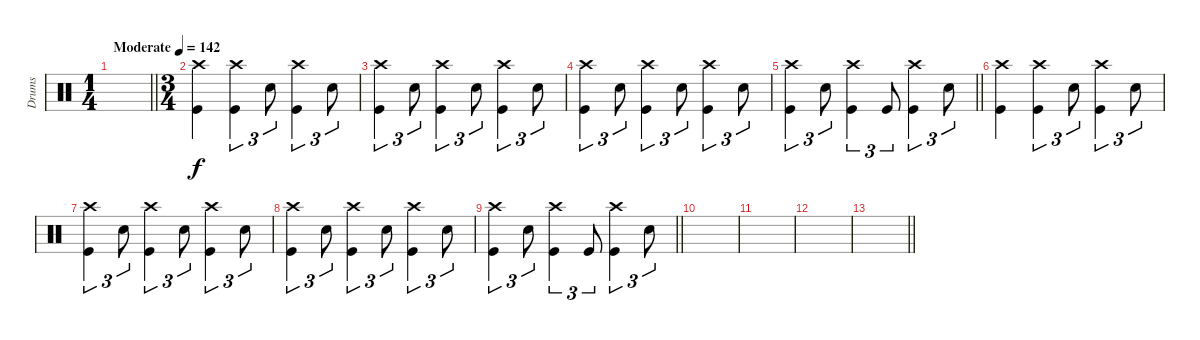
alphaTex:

\track ("Drums" "Drums") {instrument percussion}
\staff
\articulation defaults
\ts (1 4)
\tempo (142 "Moderate")
\clef neutral
\barLineRight lightlight
\ks c
|
\ts (3 4)
\section ("" "")
("Crash high (hit)" "Kick (hit)").4 ("Crash high (hit)" "Kick (hit)").4{tu (3 2)} "Electric Snare (hit)".8{tu (3 2)} ("Crash high (hit)" "Kick (hit)").4{tu (3 2)} "Electric Snare (hit)".8{tu (3 2)} |
("Crash high (hit)" "Kick (hit)").4{tu (3 2)} "Electric Snare (hit)".8{tu (3 2)} ("Crash high (hit)" "Kick (hit)").4{tu (3 2)} "Electric Snare (hit)".8{tu (3 2)} ("Crash high (hit)" "Kick (hit)").4{tu (3 2)} "Electric Snare (hit)".8{tu (3 2)} |
("Crash high (hit)" "Kick (hit)").4{tu (3 2)} "Electric Snare (hit)".8{tu (3 2)} ("Crash high (hit)" "Kick (hit)").4{tu (3 2)} "Electric Snare (hit)".8{tu (3 2)} ("Crash high (hit)" "Kick (hit)").4{tu (3 2)} "Electric Snare (hit)".8{tu (3 2)} |
\barLineRight lightlight
("Crash high (hit)" "Kick (hit)").4{tu (3 2)} "Electric Snare (hit)".8{tu (3 2)} ("Crash high (hit)" "Kick (hit)").4{tu (3 2)} "Kick (hit)".8{tu (3 2)} ("Crash high (hit)" "Kick (hit)").4{tu (3 2)} "Electric Snare (hit)".8{tu (3 2)} |
("Crash high (hit)" "Kick (hit)").4 ("Crash high (hit)" "Kick (hit)").4{tu (3 2)} "Electric Snare (hit)".8{tu (3 2)} ("Crash high (hit)" "Kick (hit)").4{tu (3 2)} "Electric Snare (hit)".8{tu (3 2)} |
("Crash high (hit)" "Kick (hit)").4{tu (3 2)} "Electric Snare (hit)".8{tu (3 2)} ("Crash high (hit)" "Kick (hit)").4{tu (3 2)} "Electric Snare (hit)".8{tu (3 2)} ("Crash high (hit)" "Kick (hit)").4{tu (3 2)} "Electric Snare (hit)".8{tu (3 2)} |
("Crash high (hit)" "Kick (hit)").4{tu (3 2)} "Electric Snare (hit)".8{tu (3 2)} ("Crash high (hit)" "Kick (hit)").4{tu (3 2)} "Electric Snare (hit)".8{tu (3 2)} ("Crash high (hit)" "Kick (hit)").4{tu (3 2)} "Electric Snare (hit)".8{tu (3 2)} |
\barLineRight lightlight
("Crash high (hit)" "Kick (hit)").4{tu (3 2)} "Electric Snare (hit)".8{tu (3 2)} ("Crash high (hit)" "Kick (hit)").4{tu (3 2)} "Kick (hit)".8{tu (3 2)} ("Crash high (hit)" "Kick (hit)").4{tu (3 2)} "Electric Snare (hit)".8{tu (3 2)} |
|
|
|
\barLineRight lightlight
